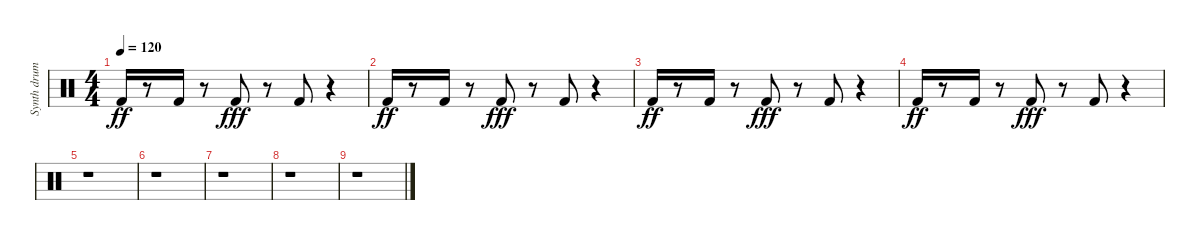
\track ("Synth drums" "Synth drum") {instrument percussion}
\staff {score}
\articulation defaults
\ts (4 4)
\tempo 120
\clef neutral
\ks c "Kick (hit) 2".16{dy ff}
r.8 "Kick (hit) 2".16 r.8 "Kick (hit) 2".8{dy fff} r.8 "Kick (hit) 2".8 r.4 |
"Kick (hit) 2".16{dy ff} r.8 "Kick (hit) 2".16 r.8 "Kick (hit) 2".8{dy fff} r.8 "Kick (hit) 2".8 r.4 |
"Kick (hit) 2".16{dy ff} r.8 "Kick (hit) 2".16 r.8 "Kick (hit) 2".8{dy fff} r.8 "Kick (hit) 2".8 r.4 |
"Kick (hit) 2".16{dy ff} r.8 "Kick (hit) 2".16 r.8 "Kick (hit) 2".8{dy fff} r.8 "Kick (hit) 2".8 r.4 |
r.1 |
r.1 |
r.1 |
r.1 |
r.1
